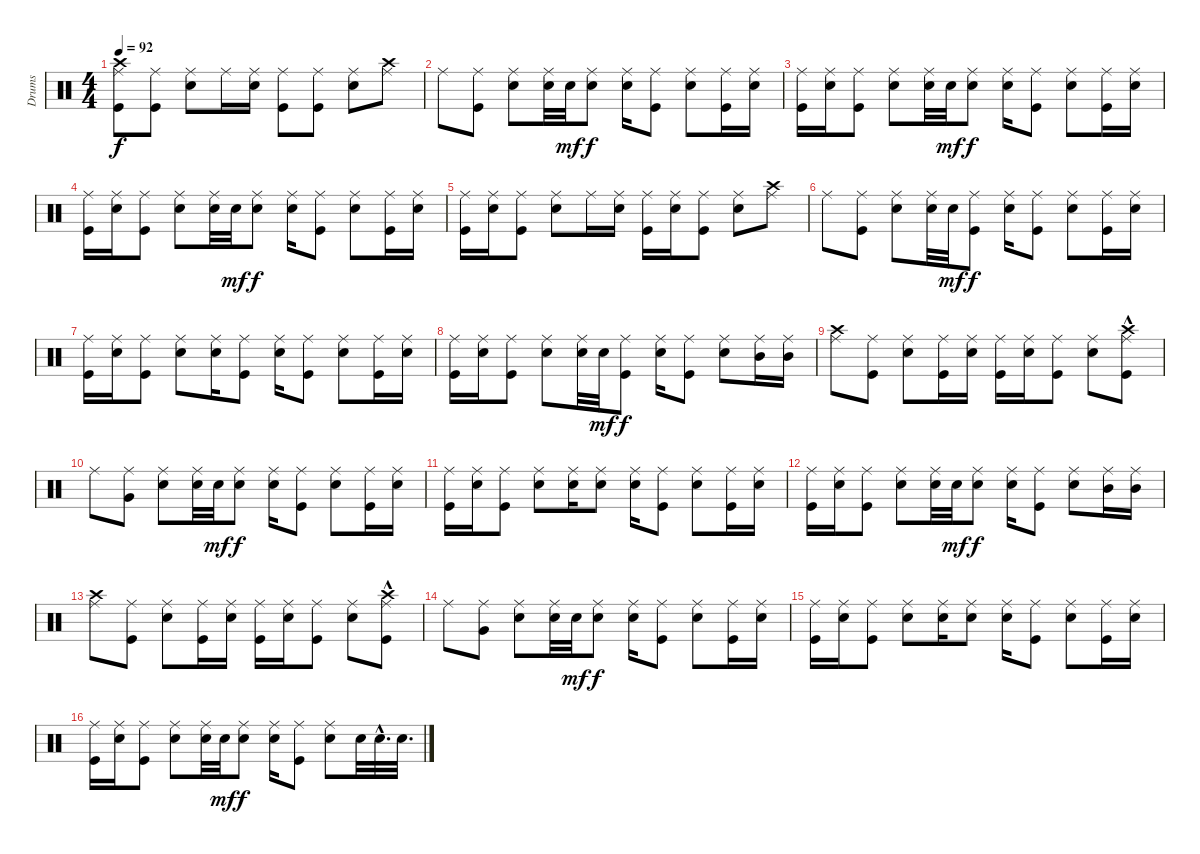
\track ("Drums" "Drums") {instrument percussion}
\staff {score}
\articulation defaults
\ts (4 4)
\tempo 92
\clef neutral
\ks c
("Crash high (hit)" "Kick (hit)" "Ride (middle)").8{dy f} ("Kick (hit)" "Ride (middle)").8 ("Snare (hit) 2" "Ride (middle)").8 "Ride (middle)".16 ("Snare (hit) 2" "Ride (middle)").16 ("Kick (hit)" "Ride (middle)").8 ("Kick (hit)" "Ride (middle)").8 ("Snare (hit) 2" "Ride (middle)").8 ("Crash high (hit)" "Ride (middle)").8 |
"Ride (middle)".8 ("Kick (hit)" "Ride (middle)").8 ("Snare (hit) 2" "Ride (middle)").8 ("Snare (hit) 2" "Ride (middle)").32 "Snare (hit) 2".32{dy mf} ("Snare (hit) 2" "Ride (middle)").8{dy f} ("Snare (hit) 2" "Ride (middle)").16 ("Kick (hit)" "Ride (middle)").8 ("Snare (hit) 2" "Ride (middle)").8 ("Kick (hit)" "Ride (middle)").16 ("Snare (hit) 2" "Ride (middle)").16 |
("Kick (hit)" "Ride (middle)").16 ("Snare (hit) 2" "Ride (middle)").16 ("Kick (hit)" "Ride (middle)").8 ("Snare (hit) 2" "Ride (middle)").8 ("Snare (hit) 2" "Ride (middle)").32 "Snare (hit) 2".32{dy mf} ("Snare (hit) 2" "Ride (middle)").8{dy f} ("Snare (hit) 2" "Ride (middle)").16 ("Kick (hit)" "Ride (middle)").8 ("Snare (hit) 2" "Ride (middle)").8 ("Kick (hit)" "Ride (middle)").16 ("Snare (hit) 2" "Ride (middle)").16 |
("Kick (hit)" "Ride (middle)").16 ("Snare (hit) 2" "Ride (middle)").16 ("Kick (hit)" "Ride (middle)").8 ("Snare (hit) 2" "Ride (middle)").8 ("Snare (hit) 2" "Ride (middle)").32 "Snare (hit) 2".32{dy mf} ("Snare (hit) 2" "Ride (middle)").8{dy f} ("Snare (hit) 2" "Ride (middle)").16 ("Kick (hit)" "Ride (middle)").8 ("Snare (hit) 2" "Ride (middle)").8 ("Kick (hit)" "Ride (middle)").16 ("Snare (hit) 2" "Ride (middle)").16 |
("Kick (hit)" "Ride (middle)").16 ("Snare (hit) 2" "Ride (middle)").16 ("Kick (hit)" "Ride (middle)").8 ("Snare (hit) 2" "Ride (middle)").8 "Ride (middle)".16 ("Snare (hit) 2" "Ride (middle)").16 ("Kick (hit)" "Ride (middle)").16 ("Snare (hit) 2" "Ride (middle)").16 ("Kick (hit)" "Ride (middle)").8 ("Snare (hit) 2" "Ride (middle)").8 ("Crash high (hit)" "Ride (middle)").8 |
"Ride (middle)".8 ("Kick (hit)" "Ride (middle)").8 ("Snare (hit) 2" "Ride (middle)").8 ("Snare (hit) 2" "Ride (middle)").32 "Snare (hit) 2".32{dy mf} ("Kick (hit)" "Ride (middle)").8{dy f} ("Snare (hit) 2" "Ride (middle)").16 ("Kick (hit)" "Ride (middle)").8 ("Snare (hit) 2" "Ride (middle)").8 ("Kick (hit)" "Ride (middle)").16 ("Snare (hit) 2" "Ride (middle)").16 |
("Kick (hit)" "Ride (middle)").16 ("Snare (hit) 2" "Ride (middle)").16 ("Kick (hit)" "Ride (middle)").8 ("Snare (hit) 2" "Ride (middle)").8 ("Snare (hit) 2" "Ride (middle)").16 ("Kick (hit)" "Ride (middle)").8 ("Snare (hit) 2" "Ride (middle)").16 ("Kick (hit)" "Ride (middle)").8 ("Snare (hit) 2" "Ride (middle)").8 ("Kick (hit)" "Ride (middle)").16 ("Snare (hit) 2" "Ride (middle)").16 |
("Kick (hit)" "Ride (middle)").16 ("Snare (hit) 2" "Ride (middle)").16 ("Kick (hit)" "Ride (middle)").8 ("Snare (hit) 2" "Ride (middle)").8 ("Snare (hit) 2" "Ride (middle)").32 "Snare (hit) 2".32{dy mf} ("Kick (hit)" "Ride (middle)").8{dy f} ("Snare (hit) 2" "Ride (middle)").16 ("Kick (hit)" "Ride (middle)").8 ("Snare (hit) 2" "Ride (middle)").8 ("Mid Tom (hit)" "Ride (middle)").16 ("Mid Tom (hit)" "Ride (middle)").16 |
("Crash high (hit)" "Ride (middle)").8 ("Kick (hit)" "Ride (middle)").8 ("Snare (hit) 2" "Ride (middle)").8 ("Kick (hit)" "Ride (middle)").16 ("Snare (hit) 2" "Ride (middle)").16 ("Kick (hit)" "Ride (middle)").16 ("Snare (hit) 2" "Ride (middle)").16 ("Kick (hit)" "Ride (middle)").8 ("Snare (hit) 2" "Ride (middle)").8 ("Crash high (hit)"{hac} "Kick (hit)" "Ride (middle)").8 |
"Ride (middle)".8 ("Very Low Tom (hit)" "Ride (middle)").8 ("Snare (hit) 2" "Ride (middle)").8 ("Snare (hit) 2" "Ride (middle)").32 "Snare (hit) 2".32{dy mf} ("Snare (hit) 2" "Ride (middle)").8{dy f} ("Snare (hit) 2" "Ride (middle)").16 ("Kick (hit)" "Ride (middle)").8 ("Snare (hit) 2" "Ride (middle)").8 ("Kick (hit)" "Ride (middle)").16 ("Snare (hit) 2" "Ride (middle)").16 |
("Kick (hit)" "Ride (middle)").16 ("Snare (hit) 2" "Ride (middle)").16 ("Kick (hit)" "Ride (middle)").8 ("Snare (hit) 2" "Ride (middle)").8 ("Snare (hit) 2" "Ride (middle)").16 ("Snare (hit) 2" "Ride (middle)").8 ("Snare (hit) 2" "Ride (middle)").16 ("Kick (hit)" "Ride (middle)").8 ("Snare (hit) 2" "Ride (middle)").8 ("Kick (hit)" "Ride (middle)").16 ("Snare (hit) 2" "Ride (middle)").16 |
("Kick (hit)" "Ride (middle)").16 ("Snare (hit) 2" "Ride (middle)").16 ("Kick (hit)" "Ride (middle)").8 ("Snare (hit) 2" "Ride (middle)").8 ("Snare (hit) 2" "Ride (middle)").32 "Snare (hit) 2".32{dy mf} ("Snare (hit) 2" "Ride (middle)").8{dy f} ("Snare (hit) 2" "Ride (middle)").16 ("Kick (hit)" "Ride (middle)").8 ("Snare (hit) 2" "Ride (middle)").8 ("Mid Tom (hit)" "Ride (middle)").16 ("Mid Tom (hit)" "Ride (middle)").16 |
("Crash high (hit)" "Ride (middle)").8 ("Kick (hit)" "Ride (middle)").8 ("Snare (hit) 2" "Ride (middle)").8 ("Kick (hit)" "Ride (middle)").16 ("Snare (hit) 2" "Ride (middle)").16 ("Kick (hit)" "Ride (middle)").16 ("Snare (hit) 2" "Ride (middle)").16 ("Kick (hit)" "Ride (middle)").8 ("Snare (hit) 2" "Ride (middle)").8 ("Crash high (hit)"{hac} "Kick (hit)" "Ride (middle)").8 |
"Ride (middle)".8 ("Very Low Tom (hit)" "Ride (middle)").8 ("Snare (hit) 2" "Ride (middle)").8 ("Snare (hit) 2" "Ride (middle)").32 "Snare (hit) 2".32{dy mf} ("Snare (hit) 2" "Ride (middle)").8{dy f} ("Snare (hit) 2" "Ride (middle)").16 ("Kick (hit)" "Ride (middle)").8 ("Snare (hit) 2" "Ride (middle)").8 ("Kick (hit)" "Ride (middle)").16 ("Snare (hit) 2" "Ride (middle)").16 |
("Kick (hit)" "Ride (middle)").16 ("Snare (hit) 2" "Ride (middle)").16 ("Kick (hit)" "Ride (middle)").8 ("Snare (hit) 2" "Ride (middle)").8 ("Snare (hit) 2" "Ride (middle)").16 ("Snare (hit) 2" "Ride (middle)").8 ("Snare (hit) 2" "Ride (middle)").16 ("Kick (hit)" "Ride (middle)").8 ("Snare (hit) 2" "Ride (middle)").8 ("Kick (hit)" "Ride (middle)").16 ("Snare (hit) 2" "Ride (middle)").16 |
("Kick (hit)" "Ride (middle)").16 ("Snare (hit) 2" "Ride (middle)").16 ("Kick (hit)" "Ride (middle)").8 ("Snare (hit) 2" "Ride (middle)").8 ("Snare (hit) 2" "Ride (middle)").32 "Snare (hit) 2".32{dy mf} ("Snare (hit) 2" "Ride (middle)").8{dy f} ("Snare (hit) 2" "Ride (middle)").16 ("Kick (hit)" "Ride (middle)").8 ("Snare (hit) 2" "Ride (middle)").8 "Snare (hit) 2".32 "Snare (hit) 2"{hac}.32{d} "Snare (hit) 2".32{d}
